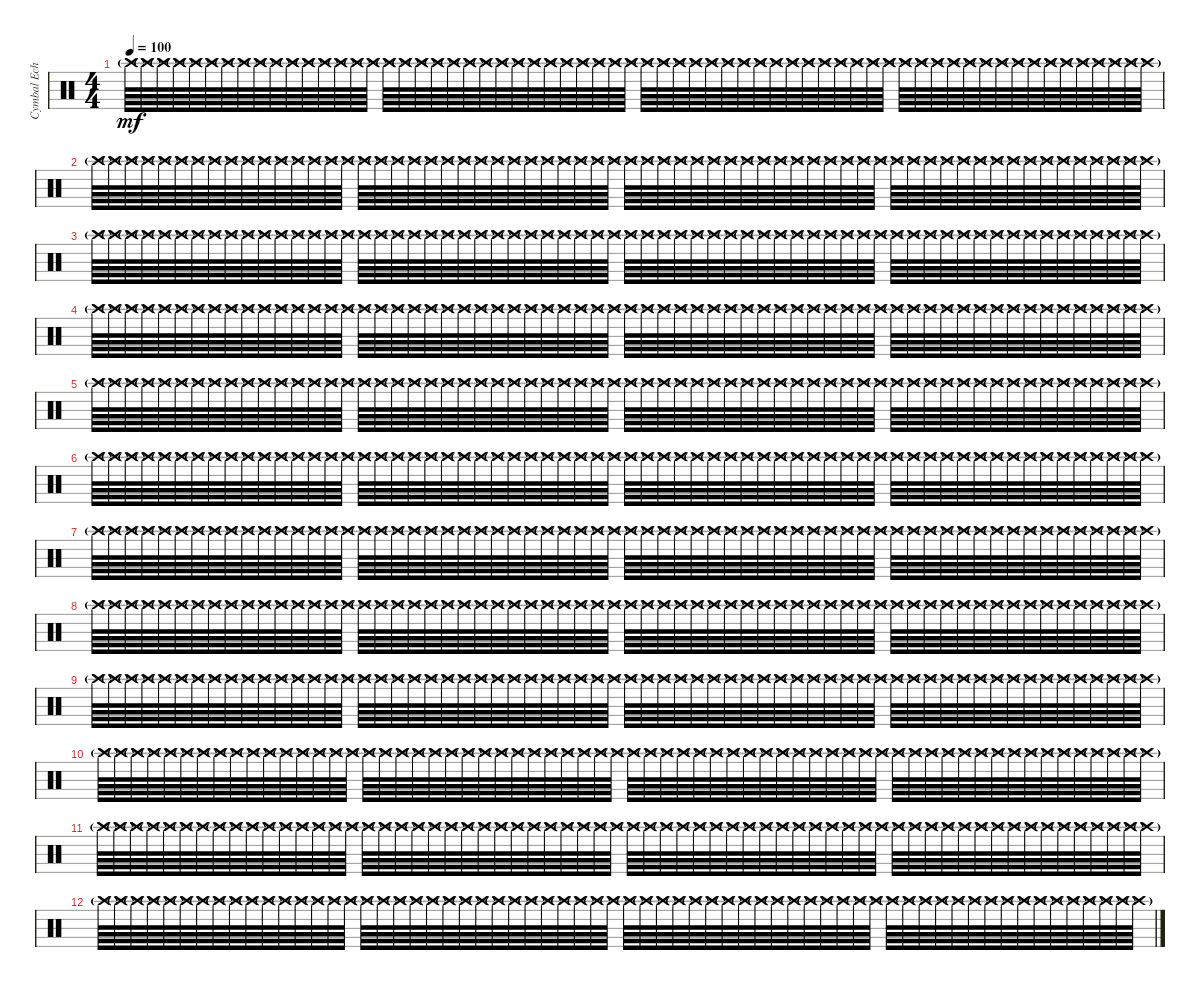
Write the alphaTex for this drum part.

\track ("Cymbal Echo Effect" "Cymbal Ech") {instrument percussion}
\staff {score}
\articulation defaults
\ts (4 4)
\tempo 100
\clef neutral
\ks aminor "Crash high (hit)"{g}.64{dy mf} "Crash high (hit)"{g}.64 "Crash high (hit)"{g}.64 "Crash high (hit)"{g}.64 "Crash high (hit)"{g}.64 "Crash high (hit)"{g}.64 "Crash high (hit)"{g}.64 "Crash high (hit)"{g}.64 "Crash high (hit)"{g}.64 "Crash high (hit)"{g}.64 "Crash high (hit)"{g}.64 "Crash high (hit)"{g}.64 "Crash high (hit)"{g}.64 "Crash high (hit)"{g}.64 "Crash high (hit)"{g}.64 "Crash high (hit)"{g}.64 "Crash high (hit)"{g}.64 "Crash high (hit)"{g}.64 "Crash high (hit)"{g}.64 "Crash high (hit)"{g}.64 "Crash high (hit)"{g}.64 "Crash high (hit)"{g}.64 "Crash high (hit)"{g}.64 "Crash high (hit)"{g}.64 "Crash high (hit)"{g}.64 "Crash high (hit)"{g}.64 "Crash high (hit)"{g}.64 "Crash high (hit)"{g}.64 "Crash high (hit)"{g}.64 "Crash high (hit)"{g}.64 "Crash high (hit)"{g}.64 "Crash high (hit)"{g}.64 "Crash high (hit)"{g}.64 "Crash high (hit)"{g}.64 "Crash high (hit)"{g}.64 "Crash high (hit)"{g}.64 "Crash high (hit)"{g}.64 "Crash high (hit)"{g}.64 "Crash high (hit)"{g}.64 "Crash high (hit)"{g}.64 "Crash high (hit)"{g}.64 "Crash high (hit)"{g}.64 "Crash high (hit)"{g}.64 "Crash high (hit)"{g}.64 "Crash high (hit)"{g}.64 "Crash high (hit)"{g}.64 "Crash high (hit)"{g}.64 "Crash high (hit)"{g}.64 "Crash high (hit)"{g}.64 "Crash high (hit)"{g}.64 "Crash high (hit)"{g}.64 "Crash high (hit)"{g}.64 "Crash high (hit)"{g}.64 "Crash high (hit)"{g}.64 "Crash high (hit)"{g}.64 "Crash high (hit)"{g}.64 "Crash high (hit)"{g}.64 "Crash high (hit)"{g}.64 "Crash high (hit)"{g}.64 "Crash high (hit)"{g}.64 "Crash high (hit)"{g}.64 "Crash high (hit)"{g}.64 "Crash high (hit)"{g}.64 "Crash high (hit)"{g}.64
|
"Crash high (hit)"{g}.64 "Crash high (hit)"{g}.64 "Crash high (hit)"{g}.64 "Crash high (hit)"{g}.64 "Crash high (hit)"{g}.64 "Crash high (hit)"{g}.64 "Crash high (hit)"{g}.64 "Crash high (hit)"{g}.64 "Crash high (hit)"{g}.64 "Crash high (hit)"{g}.64 "Crash high (hit)"{g}.64 "Crash high (hit)"{g}.64 "Crash high (hit)"{g}.64 "Crash high (hit)"{g}.64 "Crash high (hit)"{g}.64 "Crash high (hit)"{g}.64 "Crash high (hit)"{g}.64 "Crash high (hit)"{g}.64 "Crash high (hit)"{g}.64 "Crash high (hit)"{g}.64 "Crash high (hit)"{g}.64 "Crash high (hit)"{g}.64 "Crash high (hit)"{g}.64 "Crash high (hit)"{g}.64 "Crash high (hit)"{g}.64 "Crash high (hit)"{g}.64 "Crash high (hit)"{g}.64 "Crash high (hit)"{g}.64 "Crash high (hit)"{g}.64 "Crash high (hit)"{g}.64 "Crash high (hit)"{g}.64 "Crash high (hit)"{g}.64 "Crash high (hit)"{g}.64 "Crash high (hit)"{g}.64 "Crash high (hit)"{g}.64 "Crash high (hit)"{g}.64 "Crash high (hit)"{g}.64 "Crash high (hit)"{g}.64 "Crash high (hit)"{g}.64 "Crash high (hit)"{g}.64 "Crash high (hit)"{g}.64 "Crash high (hit)"{g}.64 "Crash high (hit)"{g}.64 "Crash high (hit)"{g}.64 "Crash high (hit)"{g}.64 "Crash high (hit)"{g}.64 "Crash high (hit)"{g}.64 "Crash high (hit)"{g}.64 "Crash high (hit)"{g}.64 "Crash high (hit)"{g}.64 "Crash high (hit)"{g}.64 "Crash high (hit)"{g}.64 "Crash high (hit)"{g}.64 "Crash high (hit)"{g}.64 "Crash high (hit)"{g}.64 "Crash high (hit)"{g}.64 "Crash high (hit)"{g}.64 "Crash high (hit)"{g}.64 "Crash high (hit)"{g}.64 "Crash high (hit)"{g}.64 "Crash high (hit)"{g}.64 "Crash high (hit)"{g}.64 "Crash high (hit)"{g}.64 "Crash high (hit)"{g}.64 |
"Crash high (hit)"{g}.64 "Crash high (hit)"{g}.64 "Crash high (hit)"{g}.64 "Crash high (hit)"{g}.64 "Crash high (hit)"{g}.64 "Crash high (hit)"{g}.64 "Crash high (hit)"{g}.64 "Crash high (hit)"{g}.64 "Crash high (hit)"{g}.64 "Crash high (hit)"{g}.64 "Crash high (hit)"{g}.64 "Crash high (hit)"{g}.64 "Crash high (hit)"{g}.64 "Crash high (hit)"{g}.64 "Crash high (hit)"{g}.64 "Crash high (hit)"{g}.64 "Crash high (hit)"{g}.64 "Crash high (hit)"{g}.64 "Crash high (hit)"{g}.64 "Crash high (hit)"{g}.64 "Crash high (hit)"{g}.64 "Crash high (hit)"{g}.64 "Crash high (hit)"{g}.64 "Crash high (hit)"{g}.64 "Crash high (hit)"{g}.64 "Crash high (hit)"{g}.64 "Crash high (hit)"{g}.64 "Crash high (hit)"{g}.64 "Crash high (hit)"{g}.64 "Crash high (hit)"{g}.64 "Crash high (hit)"{g}.64 "Crash high (hit)"{g}.64 "Crash high (hit)"{g}.64 "Crash high (hit)"{g}.64 "Crash high (hit)"{g}.64 "Crash high (hit)"{g}.64 "Crash high (hit)"{g}.64 "Crash high (hit)"{g}.64 "Crash high (hit)"{g}.64 "Crash high (hit)"{g}.64 "Crash high (hit)"{g}.64 "Crash high (hit)"{g}.64 "Crash high (hit)"{g}.64 "Crash high (hit)"{g}.64 "Crash high (hit)"{g}.64 "Crash high (hit)"{g}.64 "Crash high (hit)"{g}.64 "Crash high (hit)"{g}.64 "Crash high (hit)"{g}.64 "Crash high (hit)"{g}.64 "Crash high (hit)"{g}.64 "Crash high (hit)"{g}.64 "Crash high (hit)"{g}.64 "Crash high (hit)"{g}.64 "Crash high (hit)"{g}.64 "Crash high (hit)"{g}.64 "Crash high (hit)"{g}.64 "Crash high (hit)"{g}.64 "Crash high (hit)"{g}.64 "Crash high (hit)"{g}.64 "Crash high (hit)"{g}.64 "Crash high (hit)"{g}.64 "Crash high (hit)"{g}.64 "Crash high (hit)"{g}.64 |
"Crash high (hit)"{g}.64 "Crash high (hit)"{g}.64 "Crash high (hit)"{g}.64 "Crash high (hit)"{g}.64 "Crash high (hit)"{g}.64 "Crash high (hit)"{g}.64 "Crash high (hit)"{g}.64 "Crash high (hit)"{g}.64 "Crash high (hit)"{g}.64 "Crash high (hit)"{g}.64 "Crash high (hit)"{g}.64 "Crash high (hit)"{g}.64 "Crash high (hit)"{g}.64 "Crash high (hit)"{g}.64 "Crash high (hit)"{g}.64 "Crash high (hit)"{g}.64 "Crash high (hit)"{g}.64 "Crash high (hit)"{g}.64 "Crash high (hit)"{g}.64 "Crash high (hit)"{g}.64 "Crash high (hit)"{g}.64 "Crash high (hit)"{g}.64 "Crash high (hit)"{g}.64 "Crash high (hit)"{g}.64 "Crash high (hit)"{g}.64 "Crash high (hit)"{g}.64 "Crash high (hit)"{g}.64 "Crash high (hit)"{g}.64 "Crash high (hit)"{g}.64 "Crash high (hit)"{g}.64 "Crash high (hit)"{g}.64 "Crash high (hit)"{g}.64 "Crash high (hit)"{g}.64 "Crash high (hit)"{g}.64 "Crash high (hit)"{g}.64 "Crash high (hit)"{g}.64 "Crash high (hit)"{g}.64 "Crash high (hit)"{g}.64 "Crash high (hit)"{g}.64 "Crash high (hit)"{g}.64 "Crash high (hit)"{g}.64 "Crash high (hit)"{g}.64 "Crash high (hit)"{g}.64 "Crash high (hit)"{g}.64 "Crash high (hit)"{g}.64 "Crash high (hit)"{g}.64 "Crash high (hit)"{g}.64 "Crash high (hit)"{g}.64 "Crash high (hit)"{g}.64 "Crash high (hit)"{g}.64 "Crash high (hit)"{g}.64 "Crash high (hit)"{g}.64 "Crash high (hit)"{g}.64 "Crash high (hit)"{g}.64 "Crash high (hit)"{g}.64 "Crash high (hit)"{g}.64 "Crash high (hit)"{g}.64 "Crash high (hit)"{g}.64 "Crash high (hit)"{g}.64 "Crash high (hit)"{g}.64 "Crash high (hit)"{g}.64 "Crash high (hit)"{g}.64 "Crash high (hit)"{g}.64 "Crash high (hit)"{g}.64 |
"Crash high (hit)"{g}.64 "Crash high (hit)"{g}.64 "Crash high (hit)"{g}.64 "Crash high (hit)"{g}.64 "Crash high (hit)"{g}.64 "Crash high (hit)"{g}.64 "Crash high (hit)"{g}.64 "Crash high (hit)"{g}.64 "Crash high (hit)"{g}.64 "Crash high (hit)"{g}.64 "Crash high (hit)"{g}.64 "Crash high (hit)"{g}.64 "Crash high (hit)"{g}.64 "Crash high (hit)"{g}.64 "Crash high (hit)"{g}.64 "Crash high (hit)"{g}.64 "Crash high (hit)"{g}.64 "Crash high (hit)"{g}.64 "Crash high (hit)"{g}.64 "Crash high (hit)"{g}.64 "Crash high (hit)"{g}.64 "Crash high (hit)"{g}.64 "Crash high (hit)"{g}.64 "Crash high (hit)"{g}.64 "Crash high (hit)"{g}.64 "Crash high (hit)"{g}.64 "Crash high (hit)"{g}.64 "Crash high (hit)"{g}.64 "Crash high (hit)"{g}.64 "Crash high (hit)"{g}.64 "Crash high (hit)"{g}.64 "Crash high (hit)"{g}.64 "Crash high (hit)"{g}.64 "Crash high (hit)"{g}.64 "Crash high (hit)"{g}.64 "Crash high (hit)"{g}.64 "Crash high (hit)"{g}.64 "Crash high (hit)"{g}.64 "Crash high (hit)"{g}.64 "Crash high (hit)"{g}.64 "Crash high (hit)"{g}.64 "Crash high (hit)"{g}.64 "Crash high (hit)"{g}.64 "Crash high (hit)"{g}.64 "Crash high (hit)"{g}.64 "Crash high (hit)"{g}.64 "Crash high (hit)"{g}.64 "Crash high (hit)"{g}.64 "Crash high (hit)"{g}.64 "Crash high (hit)"{g}.64 "Crash high (hit)"{g}.64 "Crash high (hit)"{g}.64 "Crash high (hit)"{g}.64 "Crash high (hit)"{g}.64 "Crash high (hit)"{g}.64 "Crash high (hit)"{g}.64 "Crash high (hit)"{g}.64 "Crash high (hit)"{g}.64 "Crash high (hit)"{g}.64 "Crash high (hit)"{g}.64 "Crash high (hit)"{g}.64 "Crash high (hit)"{g}.64 "Crash high (hit)"{g}.64 "Crash high (hit)"{g}.64 |
"Crash high (hit)"{g}.64 "Crash high (hit)"{g}.64 "Crash high (hit)"{g}.64 "Crash high (hit)"{g}.64 "Crash high (hit)"{g}.64 "Crash high (hit)"{g}.64 "Crash high (hit)"{g}.64 "Crash high (hit)"{g}.64 "Crash high (hit)"{g}.64 "Crash high (hit)"{g}.64 "Crash high (hit)"{g}.64 "Crash high (hit)"{g}.64 "Crash high (hit)"{g}.64 "Crash high (hit)"{g}.64 "Crash high (hit)"{g}.64 "Crash high (hit)"{g}.64 "Crash high (hit)"{g}.64 "Crash high (hit)"{g}.64 "Crash high (hit)"{g}.64 "Crash high (hit)"{g}.64 "Crash high (hit)"{g}.64 "Crash high (hit)"{g}.64 "Crash high (hit)"{g}.64 "Crash high (hit)"{g}.64 "Crash high (hit)"{g}.64 "Crash high (hit)"{g}.64 "Crash high (hit)"{g}.64 "Crash high (hit)"{g}.64 "Crash high (hit)"{g}.64 "Crash high (hit)"{g}.64 "Crash high (hit)"{g}.64 "Crash high (hit)"{g}.64 "Crash high (hit)"{g}.64 "Crash high (hit)"{g}.64 "Crash high (hit)"{g}.64 "Crash high (hit)"{g}.64 "Crash high (hit)"{g}.64 "Crash high (hit)"{g}.64 "Crash high (hit)"{g}.64 "Crash high (hit)"{g}.64 "Crash high (hit)"{g}.64 "Crash high (hit)"{g}.64 "Crash high (hit)"{g}.64 "Crash high (hit)"{g}.64 "Crash high (hit)"{g}.64 "Crash high (hit)"{g}.64 "Crash high (hit)"{g}.64 "Crash high (hit)"{g}.64 "Crash high (hit)"{g}.64 "Crash high (hit)"{g}.64 "Crash high (hit)"{g}.64 "Crash high (hit)"{g}.64 "Crash high (hit)"{g}.64 "Crash high (hit)"{g}.64 "Crash high (hit)"{g}.64 "Crash high (hit)"{g}.64 "Crash high (hit)"{g}.64 "Crash high (hit)"{g}.64 "Crash high (hit)"{g}.64 "Crash high (hit)"{g}.64 "Crash high (hit)"{g}.64 "Crash high (hit)"{g}.64 "Crash high (hit)"{g}.64 "Crash high (hit)"{g}.64 |
"Crash high (hit)"{g}.64 "Crash high (hit)"{g}.64 "Crash high (hit)"{g}.64 "Crash high (hit)"{g}.64 "Crash high (hit)"{g}.64 "Crash high (hit)"{g}.64 "Crash high (hit)"{g}.64 "Crash high (hit)"{g}.64 "Crash high (hit)"{g}.64 "Crash high (hit)"{g}.64 "Crash high (hit)"{g}.64 "Crash high (hit)"{g}.64 "Crash high (hit)"{g}.64 "Crash high (hit)"{g}.64 "Crash high (hit)"{g}.64 "Crash high (hit)"{g}.64 "Crash high (hit)"{g}.64 "Crash high (hit)"{g}.64 "Crash high (hit)"{g}.64 "Crash high (hit)"{g}.64 "Crash high (hit)"{g}.64 "Crash high (hit)"{g}.64 "Crash high (hit)"{g}.64 "Crash high (hit)"{g}.64 "Crash high (hit)"{g}.64 "Crash high (hit)"{g}.64 "Crash high (hit)"{g}.64 "Crash high (hit)"{g}.64 "Crash high (hit)"{g}.64 "Crash high (hit)"{g}.64 "Crash high (hit)"{g}.64 "Crash high (hit)"{g}.64 "Crash high (hit)"{g}.64 "Crash high (hit)"{g}.64 "Crash high (hit)"{g}.64 "Crash high (hit)"{g}.64 "Crash high (hit)"{g}.64 "Crash high (hit)"{g}.64 "Crash high (hit)"{g}.64 "Crash high (hit)"{g}.64 "Crash high (hit)"{g}.64 "Crash high (hit)"{g}.64 "Crash high (hit)"{g}.64 "Crash high (hit)"{g}.64 "Crash high (hit)"{g}.64 "Crash high (hit)"{g}.64 "Crash high (hit)"{g}.64 "Crash high (hit)"{g}.64 "Crash high (hit)"{g}.64 "Crash high (hit)"{g}.64 "Crash high (hit)"{g}.64 "Crash high (hit)"{g}.64 "Crash high (hit)"{g}.64 "Crash high (hit)"{g}.64 "Crash high (hit)"{g}.64 "Crash high (hit)"{g}.64 "Crash high (hit)"{g}.64 "Crash high (hit)"{g}.64 "Crash high (hit)"{g}.64 "Crash high (hit)"{g}.64 "Crash high (hit)"{g}.64 "Crash high (hit)"{g}.64 "Crash high (hit)"{g}.64 "Crash high (hit)"{g}.64 |
"Crash high (hit)"{g}.64 "Crash high (hit)"{g}.64 "Crash high (hit)"{g}.64 "Crash high (hit)"{g}.64 "Crash high (hit)"{g}.64 "Crash high (hit)"{g}.64 "Crash high (hit)"{g}.64 "Crash high (hit)"{g}.64 "Crash high (hit)"{g}.64 "Crash high (hit)"{g}.64 "Crash high (hit)"{g}.64 "Crash high (hit)"{g}.64 "Crash high (hit)"{g}.64 "Crash high (hit)"{g}.64 "Crash high (hit)"{g}.64 "Crash high (hit)"{g}.64 "Crash high (hit)"{g}.64 "Crash high (hit)"{g}.64 "Crash high (hit)"{g}.64 "Crash high (hit)"{g}.64 "Crash high (hit)"{g}.64 "Crash high (hit)"{g}.64 "Crash high (hit)"{g}.64 "Crash high (hit)"{g}.64 "Crash high (hit)"{g}.64 "Crash high (hit)"{g}.64 "Crash high (hit)"{g}.64 "Crash high (hit)"{g}.64 "Crash high (hit)"{g}.64 "Crash high (hit)"{g}.64 "Crash high (hit)"{g}.64 "Crash high (hit)"{g}.64 "Crash high (hit)"{g}.64 "Crash high (hit)"{g}.64 "Crash high (hit)"{g}.64 "Crash high (hit)"{g}.64 "Crash high (hit)"{g}.64 "Crash high (hit)"{g}.64 "Crash high (hit)"{g}.64 "Crash high (hit)"{g}.64 "Crash high (hit)"{g}.64 "Crash high (hit)"{g}.64 "Crash high (hit)"{g}.64 "Crash high (hit)"{g}.64 "Crash high (hit)"{g}.64 "Crash high (hit)"{g}.64 "Crash high (hit)"{g}.64 "Crash high (hit)"{g}.64 "Crash high (hit)"{g}.64 "Crash high (hit)"{g}.64 "Crash high (hit)"{g}.64 "Crash high (hit)"{g}.64 "Crash high (hit)"{g}.64 "Crash high (hit)"{g}.64 "Crash high (hit)"{g}.64 "Crash high (hit)"{g}.64 "Crash high (hit)"{g}.64 "Crash high (hit)"{g}.64 "Crash high (hit)"{g}.64 "Crash high (hit)"{g}.64 "Crash high (hit)"{g}.64 "Crash high (hit)"{g}.64 "Crash high (hit)"{g}.64 "Crash high (hit)"{g}.64 |
"Crash high (hit)"{g}.64 "Crash high (hit)"{g}.64 "Crash high (hit)"{g}.64 "Crash high (hit)"{g}.64 "Crash high (hit)"{g}.64 "Crash high (hit)"{g}.64 "Crash high (hit)"{g}.64 "Crash high (hit)"{g}.64 "Crash high (hit)"{g}.64 "Crash high (hit)"{g}.64 "Crash high (hit)"{g}.64 "Crash high (hit)"{g}.64 "Crash high (hit)"{g}.64 "Crash high (hit)"{g}.64 "Crash high (hit)"{g}.64 "Crash high (hit)"{g}.64 "Crash high (hit)"{g}.64 "Crash high (hit)"{g}.64 "Crash high (hit)"{g}.64 "Crash high (hit)"{g}.64 "Crash high (hit)"{g}.64 "Crash high (hit)"{g}.64 "Crash high (hit)"{g}.64 "Crash high (hit)"{g}.64 "Crash high (hit)"{g}.64 "Crash high (hit)"{g}.64 "Crash high (hit)"{g}.64 "Crash high (hit)"{g}.64 "Crash high (hit)"{g}.64 "Crash high (hit)"{g}.64 "Crash high (hit)"{g}.64 "Crash high (hit)"{g}.64 "Crash high (hit)"{g}.64 "Crash high (hit)"{g}.64 "Crash high (hit)"{g}.64 "Crash high (hit)"{g}.64 "Crash high (hit)"{g}.64 "Crash high (hit)"{g}.64 "Crash high (hit)"{g}.64 "Crash high (hit)"{g}.64 "Crash high (hit)"{g}.64 "Crash high (hit)"{g}.64 "Crash high (hit)"{g}.64 "Crash high (hit)"{g}.64 "Crash high (hit)"{g}.64 "Crash high (hit)"{g}.64 "Crash high (hit)"{g}.64 "Crash high (hit)"{g}.64 "Crash high (hit)"{g}.64 "Crash high (hit)"{g}.64 "Crash high (hit)"{g}.64 "Crash high (hit)"{g}.64 "Crash high (hit)"{g}.64 "Crash high (hit)"{g}.64 "Crash high (hit)"{g}.64 "Crash high (hit)"{g}.64 "Crash high (hit)"{g}.64 "Crash high (hit)"{g}.64 "Crash high (hit)"{g}.64 "Crash high (hit)"{g}.64 "Crash high (hit)"{g}.64 "Crash high (hit)"{g}.64 "Crash high (hit)"{g}.64 "Crash high (hit)"{g}.64 |
"Crash high (hit)"{g}.64 "Crash high (hit)"{g}.64 "Crash high (hit)"{g}.64 "Crash high (hit)"{g}.64 "Crash high (hit)"{g}.64 "Crash high (hit)"{g}.64 "Crash high (hit)"{g}.64 "Crash high (hit)"{g}.64 "Crash high (hit)"{g}.64 "Crash high (hit)"{g}.64 "Crash high (hit)"{g}.64 "Crash high (hit)"{g}.64 "Crash high (hit)"{g}.64 "Crash high (hit)"{g}.64 "Crash high (hit)"{g}.64 "Crash high (hit)"{g}.64 "Crash high (hit)"{g}.64 "Crash high (hit)"{g}.64 "Crash high (hit)"{g}.64 "Crash high (hit)"{g}.64 "Crash high (hit)"{g}.64 "Crash high (hit)"{g}.64 "Crash high (hit)"{g}.64 "Crash high (hit)"{g}.64 "Crash high (hit)"{g}.64 "Crash high (hit)"{g}.64 "Crash high (hit)"{g}.64 "Crash high (hit)"{g}.64 "Crash high (hit)"{g}.64 "Crash high (hit)"{g}.64 "Crash high (hit)"{g}.64 "Crash high (hit)"{g}.64 "Crash high (hit)"{g}.64 "Crash high (hit)"{g}.64 "Crash high (hit)"{g}.64 "Crash high (hit)"{g}.64 "Crash high (hit)"{g}.64 "Crash high (hit)"{g}.64 "Crash high (hit)"{g}.64 "Crash high (hit)"{g}.64 "Crash high (hit)"{g}.64 "Crash high (hit)"{g}.64 "Crash high (hit)"{g}.64 "Crash high (hit)"{g}.64 "Crash high (hit)"{g}.64 "Crash high (hit)"{g}.64 "Crash high (hit)"{g}.64 "Crash high (hit)"{g}.64 "Crash high (hit)"{g}.64 "Crash high (hit)"{g}.64 "Crash high (hit)"{g}.64 "Crash high (hit)"{g}.64 "Crash high (hit)"{g}.64 "Crash high (hit)"{g}.64 "Crash high (hit)"{g}.64 "Crash high (hit)"{g}.64 "Crash high (hit)"{g}.64 "Crash high (hit)"{g}.64 "Crash high (hit)"{g}.64 "Crash high (hit)"{g}.64 "Crash high (hit)"{g}.64 "Crash high (hit)"{g}.64 "Crash high (hit)"{g}.64 "Crash high (hit)"{g}.64 |
"Crash high (hit)"{g}.64 "Crash high (hit)"{g}.64 "Crash high (hit)"{g}.64 "Crash high (hit)"{g}.64 "Crash high (hit)"{g}.64 "Crash high (hit)"{g}.64 "Crash high (hit)"{g}.64 "Crash high (hit)"{g}.64 "Crash high (hit)"{g}.64 "Crash high (hit)"{g}.64 "Crash high (hit)"{g}.64 "Crash high (hit)"{g}.64 "Crash high (hit)"{g}.64 "Crash high (hit)"{g}.64 "Crash high (hit)"{g}.64 "Crash high (hit)"{g}.64 "Crash high (hit)"{g}.64 "Crash high (hit)"{g}.64 "Crash high (hit)"{g}.64 "Crash high (hit)"{g}.64 "Crash high (hit)"{g}.64 "Crash high (hit)"{g}.64 "Crash high (hit)"{g}.64 "Crash high (hit)"{g}.64 "Crash high (hit)"{g}.64 "Crash high (hit)"{g}.64 "Crash high (hit)"{g}.64 "Crash high (hit)"{g}.64 "Crash high (hit)"{g}.64 "Crash high (hit)"{g}.64 "Crash high (hit)"{g}.64 "Crash high (hit)"{g}.64 "Crash high (hit)"{g}.64 "Crash high (hit)"{g}.64 "Crash high (hit)"{g}.64 "Crash high (hit)"{g}.64 "Crash high (hit)"{g}.64 "Crash high (hit)"{g}.64 "Crash high (hit)"{g}.64 "Crash high (hit)"{g}.64 "Crash high (hit)"{g}.64 "Crash high (hit)"{g}.64 "Crash high (hit)"{g}.64 "Crash high (hit)"{g}.64 "Crash high (hit)"{g}.64 "Crash high (hit)"{g}.64 "Crash high (hit)"{g}.64 "Crash high (hit)"{g}.64 "Crash high (hit)"{g}.64 "Crash high (hit)"{g}.64 "Crash high (hit)"{g}.64 "Crash high (hit)"{g}.64 "Crash high (hit)"{g}.64 "Crash high (hit)"{g}.64 "Crash high (hit)"{g}.64 "Crash high (hit)"{g}.64 "Crash high (hit)"{g}.64 "Crash high (hit)"{g}.64 "Crash high (hit)"{g}.64 "Crash high (hit)"{g}.64 "Crash high (hit)"{g}.64 "Crash high (hit)"{g}.64 "Crash high (hit)"{g}.64 "Crash high (hit)"{g}.64 |
"Crash high (hit)"{g}.64 "Crash high (hit)"{g}.64 "Crash high (hit)"{g}.64 "Crash high (hit)"{g}.64 "Crash high (hit)"{g}.64 "Crash high (hit)"{g}.64 "Crash high (hit)"{g}.64 "Crash high (hit)"{g}.64 "Crash high (hit)"{g}.64 "Crash high (hit)"{g}.64 "Crash high (hit)"{g}.64 "Crash high (hit)"{g}.64 "Crash high (hit)"{g}.64 "Crash high (hit)"{g}.64 "Crash high (hit)"{g}.64 "Crash high (hit)"{g}.64 "Crash high (hit)"{g}.64 "Crash high (hit)"{g}.64 "Crash high (hit)"{g}.64 "Crash high (hit)"{g}.64 "Crash high (hit)"{g}.64 "Crash high (hit)"{g}.64 "Crash high (hit)"{g}.64 "Crash high (hit)"{g}.64 "Crash high (hit)"{g}.64 "Crash high (hit)"{g}.64 "Crash high (hit)"{g}.64 "Crash high (hit)"{g}.64 "Crash high (hit)"{g}.64 "Crash high (hit)"{g}.64 "Crash high (hit)"{g}.64 "Crash high (hit)"{g}.64 "Crash high (hit)"{g}.64 "Crash high (hit)"{g}.64 "Crash high (hit)"{g}.64 "Crash high (hit)"{g}.64 "Crash high (hit)"{g}.64 "Crash high (hit)"{g}.64 "Crash high (hit)"{g}.64 "Crash high (hit)"{g}.64 "Crash high (hit)"{g}.64 "Crash high (hit)"{g}.64 "Crash high (hit)"{g}.64 "Crash high (hit)"{g}.64 "Crash high (hit)"{g}.64 "Crash high (hit)"{g}.64 "Crash high (hit)"{g}.64 "Crash high (hit)"{g}.64 "Crash high (hit)"{g}.64 "Crash high (hit)"{g}.64 "Crash high (hit)"{g}.64 "Crash high (hit)"{g}.64 "Crash high (hit)"{g}.64 "Crash high (hit)"{g}.64 "Crash high (hit)"{g}.64 "Crash high (hit)"{g}.64 "Crash high (hit)"{g}.64 "Crash high (hit)"{g}.64 "Crash high (hit)"{g}.64 "Crash high (hit)"{g}.64 "Crash high (hit)"{g}.64 "Crash high (hit)"{g}.64 "Crash high (hit)"{g}.64 "Crash high (hit)"{g}.64
